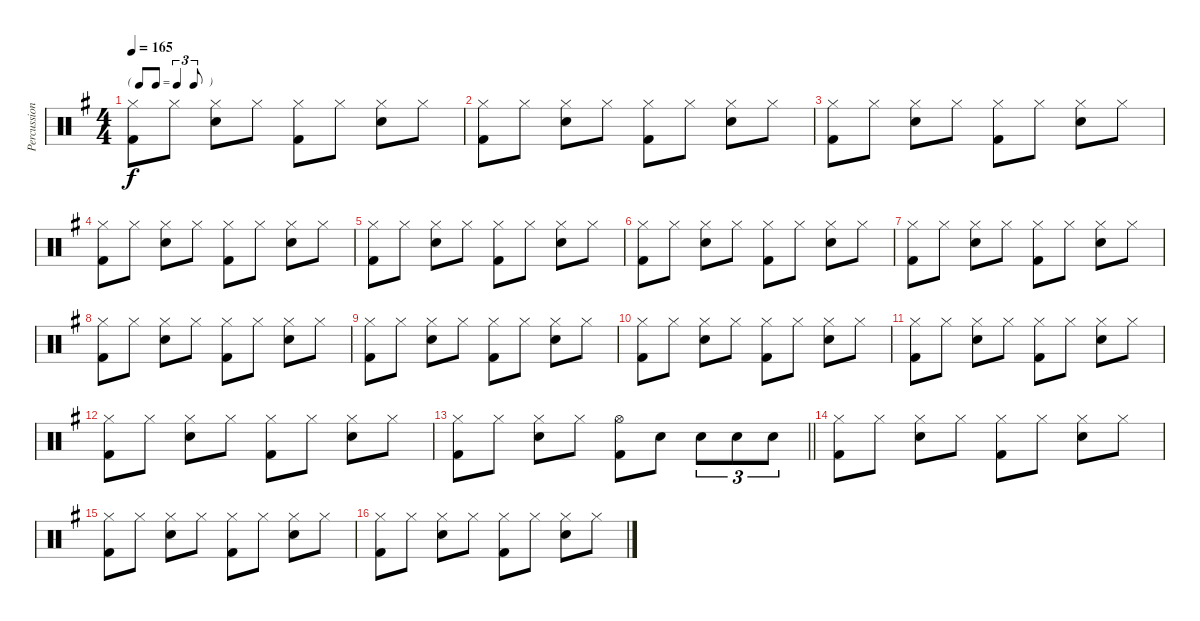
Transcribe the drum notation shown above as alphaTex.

\track ("Percussion" "Percussion") {instrument percussion}
\staff {score}
\articulation defaults
\ts (4 4)
\tf triplet8th
\tempo 165
\clef neutral
\ks g
("Hi-Hat (closed)" "Kick (hit) 2").8{dy f} "Hi-Hat (closed)".8 ("Hi-Hat (closed)" "Snare (hit) 2").8 "Hi-Hat (closed)".8 ("Hi-Hat (closed)" "Kick (hit) 2").8 "Hi-Hat (closed)".8 ("Hi-Hat (closed)" "Snare (hit) 2").8 "Hi-Hat (closed)".8 |
("Hi-Hat (closed)" "Kick (hit) 2").8 "Hi-Hat (closed)".8 ("Hi-Hat (closed)" "Snare (hit) 2").8 "Hi-Hat (closed)".8 ("Hi-Hat (closed)" "Kick (hit) 2").8 "Hi-Hat (closed)".8 ("Hi-Hat (closed)" "Snare (hit) 2").8 "Hi-Hat (closed)".8 |
("Hi-Hat (closed)" "Kick (hit) 2").8 "Hi-Hat (closed)".8 ("Hi-Hat (closed)" "Snare (hit) 2").8 "Hi-Hat (closed)".8 ("Hi-Hat (closed)" "Kick (hit) 2").8 "Hi-Hat (closed)".8 ("Hi-Hat (closed)" "Snare (hit) 2").8 "Hi-Hat (closed)".8 |
("Hi-Hat (closed)" "Kick (hit) 2").8 "Hi-Hat (closed)".8 ("Hi-Hat (closed)" "Snare (hit) 2").8 "Hi-Hat (closed)".8 ("Hi-Hat (closed)" "Kick (hit) 2").8 "Hi-Hat (closed)".8 ("Hi-Hat (closed)" "Snare (hit) 2").8 "Hi-Hat (closed)".8 |
("Hi-Hat (closed)" "Kick (hit) 2").8 "Hi-Hat (closed)".8 ("Hi-Hat (closed)" "Snare (hit) 2").8 "Hi-Hat (closed)".8 ("Hi-Hat (closed)" "Kick (hit) 2").8 "Hi-Hat (closed)".8 ("Hi-Hat (closed)" "Snare (hit) 2").8 "Hi-Hat (closed)".8 |
("Hi-Hat (closed)" "Kick (hit) 2").8 "Hi-Hat (closed)".8 ("Hi-Hat (closed)" "Snare (hit) 2").8 "Hi-Hat (closed)".8 ("Hi-Hat (closed)" "Kick (hit) 2").8 "Hi-Hat (closed)".8 ("Hi-Hat (closed)" "Snare (hit) 2").8 "Hi-Hat (closed)".8 |
("Hi-Hat (closed)" "Kick (hit) 2").8 "Hi-Hat (closed)".8 ("Hi-Hat (closed)" "Snare (hit) 2").8 "Hi-Hat (closed)".8 ("Hi-Hat (closed)" "Kick (hit) 2").8 "Hi-Hat (closed)".8 ("Hi-Hat (closed)" "Snare (hit) 2").8 "Hi-Hat (closed)".8 |
("Hi-Hat (closed)" "Kick (hit) 2").8 "Hi-Hat (closed)".8 ("Hi-Hat (closed)" "Snare (hit) 2").8 "Hi-Hat (closed)".8 ("Hi-Hat (closed)" "Kick (hit) 2").8 "Hi-Hat (closed)".8 ("Hi-Hat (closed)" "Snare (hit) 2").8 "Hi-Hat (closed)".8 |
("Hi-Hat (closed)" "Kick (hit) 2").8 "Hi-Hat (closed)".8 ("Hi-Hat (closed)" "Snare (hit) 2").8 "Hi-Hat (closed)".8 ("Hi-Hat (closed)" "Kick (hit) 2").8 "Hi-Hat (closed)".8 ("Hi-Hat (closed)" "Snare (hit) 2").8 "Hi-Hat (closed)".8 |
("Hi-Hat (closed)" "Kick (hit) 2").8 "Hi-Hat (closed)".8 ("Hi-Hat (closed)" "Snare (hit) 2").8 "Hi-Hat (closed)".8 ("Hi-Hat (closed)" "Kick (hit) 2").8 "Hi-Hat (closed)".8 ("Hi-Hat (closed)" "Snare (hit) 2").8 "Hi-Hat (closed)".8 |
("Hi-Hat (closed)" "Kick (hit) 2").8 "Hi-Hat (closed)".8 ("Hi-Hat (closed)" "Snare (hit) 2").8 "Hi-Hat (closed)".8 ("Hi-Hat (closed)" "Kick (hit) 2").8 "Hi-Hat (closed)".8 ("Hi-Hat (closed)" "Snare (hit) 2").8 "Hi-Hat (closed)".8 |
("Hi-Hat (closed)" "Kick (hit) 2").8 "Hi-Hat (closed)".8 ("Hi-Hat (closed)" "Snare (hit) 2").8 "Hi-Hat (closed)".8 ("Hi-Hat (closed)" "Kick (hit) 2").8 "Hi-Hat (closed)".8 ("Hi-Hat (closed)" "Snare (hit) 2").8 "Hi-Hat (closed)".8 |
\barLineRight lightlight
("Hi-Hat (closed)" "Kick (hit) 2").8 "Hi-Hat (closed)".8 ("Hi-Hat (closed)" "Snare (hit) 2").8 "Hi-Hat (closed)".8 ("Hi-Hat (open)" "Kick (hit) 2").8 "Snare (hit) 2".8 "Snare (hit) 2".8{tu (3 2)} "Snare (hit) 2".8{tu (3 2)} "Snare (hit) 2".8{tu (3 2)} |
("Hi-Hat (closed)" "Kick (hit) 2").8 "Hi-Hat (closed)".8 ("Hi-Hat (closed)" "Snare (hit) 2").8 "Hi-Hat (closed)".8 ("Hi-Hat (closed)" "Kick (hit) 2").8 "Hi-Hat (closed)".8 ("Hi-Hat (closed)" "Snare (hit) 2").8 "Hi-Hat (closed)".8 |
("Hi-Hat (closed)" "Kick (hit) 2").8 "Hi-Hat (closed)".8 ("Hi-Hat (closed)" "Snare (hit) 2").8 "Hi-Hat (closed)".8 ("Hi-Hat (closed)" "Kick (hit) 2").8 "Hi-Hat (closed)".8 ("Hi-Hat (closed)" "Snare (hit) 2").8 "Hi-Hat (closed)".8 |
("Hi-Hat (closed)" "Kick (hit) 2").8 "Hi-Hat (closed)".8 ("Hi-Hat (closed)" "Snare (hit) 2").8 "Hi-Hat (closed)".8 ("Hi-Hat (closed)" "Kick (hit) 2").8 "Hi-Hat (closed)".8 ("Hi-Hat (closed)" "Snare (hit) 2").8 "Hi-Hat (closed)".8
